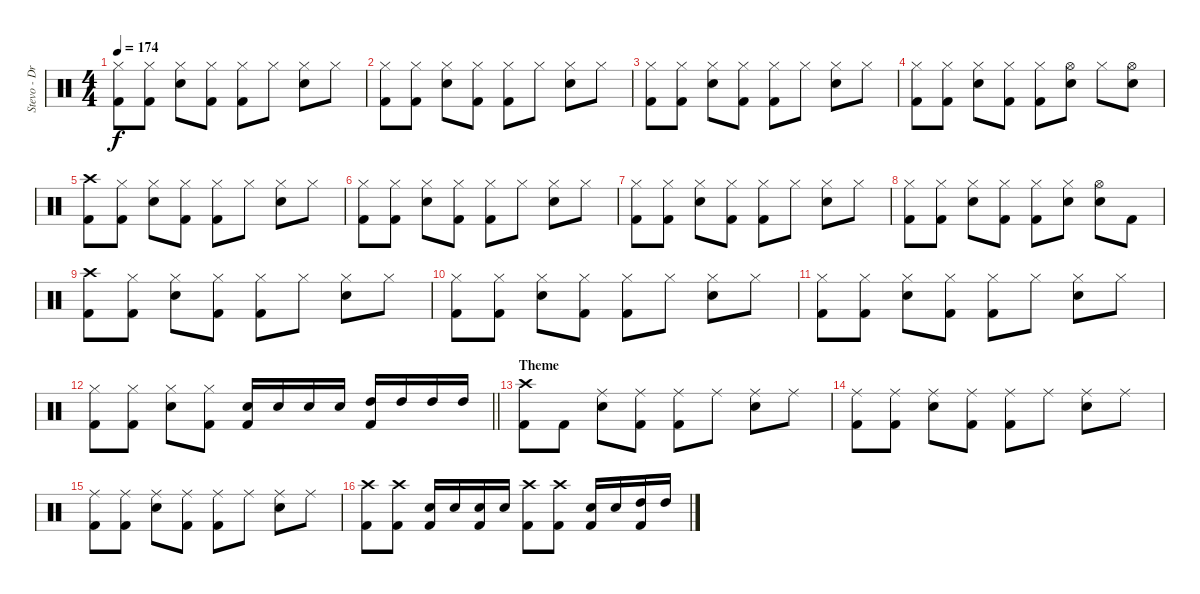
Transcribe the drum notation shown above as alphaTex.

\track ("Stevo - Drums" "Stevo - Dr") {instrument percussion}
\staff {score}
\articulation defaults
\ts (4 4)
\tempo 174
\clef neutral
\ks c
("Hi-Hat (closed)" "Kick (hit) 2").8{dy f} ("Hi-Hat (closed)" "Kick (hit) 2").8 ("Hi-Hat (closed)" "Electric Snare (hit)").8 ("Hi-Hat (closed)" "Kick (hit) 2").8 ("Hi-Hat (closed)" "Kick (hit) 2").8 "Hi-Hat (closed)".8 ("Hi-Hat (closed)" "Electric Snare (hit)").8 "Hi-Hat (closed)".8 |
("Hi-Hat (closed)" "Kick (hit) 2").8 ("Hi-Hat (closed)" "Kick (hit) 2").8 ("Hi-Hat (closed)" "Electric Snare (hit)").8 ("Hi-Hat (closed)" "Kick (hit) 2").8 ("Hi-Hat (closed)" "Kick (hit) 2").8 "Hi-Hat (closed)".8 ("Hi-Hat (closed)" "Electric Snare (hit)").8 "Hi-Hat (closed)".8 |
("Hi-Hat (closed)" "Kick (hit) 2").8 ("Hi-Hat (closed)" "Kick (hit) 2").8 ("Hi-Hat (closed)" "Electric Snare (hit)").8 ("Hi-Hat (closed)" "Kick (hit) 2").8 ("Hi-Hat (closed)" "Kick (hit) 2").8 "Hi-Hat (closed)".8 ("Hi-Hat (closed)" "Electric Snare (hit)").8 "Hi-Hat (closed)".8 |
("Hi-Hat (closed)" "Kick (hit) 2").8 ("Hi-Hat (closed)" "Kick (hit) 2").8 ("Hi-Hat (closed)" "Electric Snare (hit)").8 ("Hi-Hat (closed)" "Kick (hit) 2").8 ("Hi-Hat (closed)" "Kick (hit) 2").8 ("Hi-Hat (open)" "Electric Snare (hit)").8 "Hi-Hat (closed)".8 ("Hi-Hat (open)" "Electric Snare (hit)").8 |
("Crash high (hit)" "Kick (hit) 2").8 ("Hi-Hat (closed)" "Kick (hit) 2").8 ("Hi-Hat (closed)" "Electric Snare (hit)").8 ("Hi-Hat (closed)" "Kick (hit) 2").8 ("Hi-Hat (closed)" "Kick (hit) 2").8 "Hi-Hat (closed)".8 ("Hi-Hat (closed)" "Electric Snare (hit)").8 "Hi-Hat (closed)".8 |
("Hi-Hat (closed)" "Kick (hit) 2").8 ("Hi-Hat (closed)" "Kick (hit) 2").8 ("Hi-Hat (closed)" "Electric Snare (hit)").8 ("Hi-Hat (closed)" "Kick (hit) 2").8 ("Hi-Hat (closed)" "Kick (hit) 2").8 "Hi-Hat (closed)".8 ("Hi-Hat (closed)" "Electric Snare (hit)").8 "Hi-Hat (closed)".8 |
("Hi-Hat (closed)" "Kick (hit) 2").8 ("Hi-Hat (closed)" "Kick (hit) 2").8 ("Hi-Hat (closed)" "Electric Snare (hit)").8 ("Hi-Hat (closed)" "Kick (hit) 2").8 ("Hi-Hat (closed)" "Kick (hit) 2").8 "Hi-Hat (closed)".8 ("Hi-Hat (closed)" "Electric Snare (hit)").8 "Hi-Hat (closed)".8 |
("Hi-Hat (closed)" "Kick (hit) 2").8 ("Hi-Hat (closed)" "Kick (hit) 2").8 ("Hi-Hat (closed)" "Electric Snare (hit)").8 ("Hi-Hat (closed)" "Kick (hit) 2").8 ("Hi-Hat (closed)" "Kick (hit) 2").8 ("Hi-Hat (closed)" "Electric Snare (hit)").8 ("Hi-Hat (open)" "Electric Snare (hit)").8 "Kick (hit) 2".8 |
("Crash high (hit)" "Kick (hit) 2").8 ("Hi-Hat (closed)" "Kick (hit) 2").8 ("Hi-Hat (closed)" "Electric Snare (hit)").8 ("Hi-Hat (closed)" "Kick (hit) 2").8 ("Hi-Hat (closed)" "Kick (hit) 2").8 "Hi-Hat (closed)".8 ("Hi-Hat (closed)" "Electric Snare (hit)").8 "Hi-Hat (closed)".8 |
("Hi-Hat (closed)" "Kick (hit) 2").8 ("Hi-Hat (closed)" "Kick (hit) 2").8 ("Hi-Hat (closed)" "Electric Snare (hit)").8 ("Hi-Hat (closed)" "Kick (hit) 2").8 ("Hi-Hat (closed)" "Kick (hit) 2").8 "Hi-Hat (closed)".8 ("Hi-Hat (closed)" "Electric Snare (hit)").8 "Hi-Hat (closed)".8 |
("Hi-Hat (closed)" "Kick (hit) 2").8 ("Hi-Hat (closed)" "Kick (hit) 2").8 ("Hi-Hat (closed)" "Electric Snare (hit)").8 ("Hi-Hat (closed)" "Kick (hit) 2").8 ("Hi-Hat (closed)" "Kick (hit) 2").8 "Hi-Hat (closed)".8 ("Hi-Hat (closed)" "Electric Snare (hit)").8 "Hi-Hat (closed)".8 |
\barLineRight lightlight
("Hi-Hat (closed)" "Kick (hit) 2").8 ("Hi-Hat (closed)" "Kick (hit) 2").8 ("Hi-Hat (closed)" "Electric Snare (hit)").8 ("Hi-Hat (closed)" "Kick (hit) 2").8 ("Electric Snare (hit)" "Kick (hit) 2").16 "Electric Snare (hit)".16 "Electric Snare (hit)".16 "Electric Snare (hit)".16 ("High Tom (hit)" "Kick (hit) 2").16 "High Tom (hit)".16 "High Tom (hit)".16 "High Tom (hit)".16 |
\section ("" "Theme")
("Crash high (hit)" "Kick (hit) 2").8 "Kick (hit) 2".8 ("Ride (middle)" "Electric Snare (hit)").8 ("Ride (middle)" "Kick (hit) 2").8 ("Ride (middle)" "Kick (hit) 2").8 "Ride (middle)".8 ("Ride (middle)" "Electric Snare (hit)").8 "Ride (middle)".8 |
("Ride (middle)" "Kick (hit) 2").8 ("Ride (middle)" "Kick (hit) 2").8 ("Ride (middle)" "Electric Snare (hit)").8 ("Ride (middle)" "Kick (hit) 2").8 ("Ride (middle)" "Kick (hit) 2").8 "Ride (middle)".8 ("Ride (middle)" "Electric Snare (hit)").8 "Ride (middle)".8 |
("Ride (middle)" "Kick (hit) 2").8 ("Ride (middle)" "Kick (hit) 2").8 ("Ride (middle)" "Electric Snare (hit)").8 ("Ride (middle)" "Kick (hit) 2").8 ("Ride (middle)" "Kick (hit) 2").8 "Ride (middle)".8 ("Ride (middle)" "Electric Snare (hit)").8 "Ride (middle)".8 |
("Crash high (hit)" "Kick (hit) 2").8 ("Crash high (hit)" "Kick (hit) 2").8 ("Electric Snare (hit)" "Kick (hit) 2").16 "Electric Snare (hit)".16 ("Electric Snare (hit)" "Kick (hit) 2").16 "Electric Snare (hit)".16 ("Crash high (hit)" "Kick (hit) 2").8 ("Crash high (hit)" "Kick (hit) 2").8 ("Electric Snare (hit)" "Kick (hit) 2").16 "Electric Snare (hit)".16 ("High Tom (hit)" "Kick (hit) 2").16 "High Tom (hit)".16
